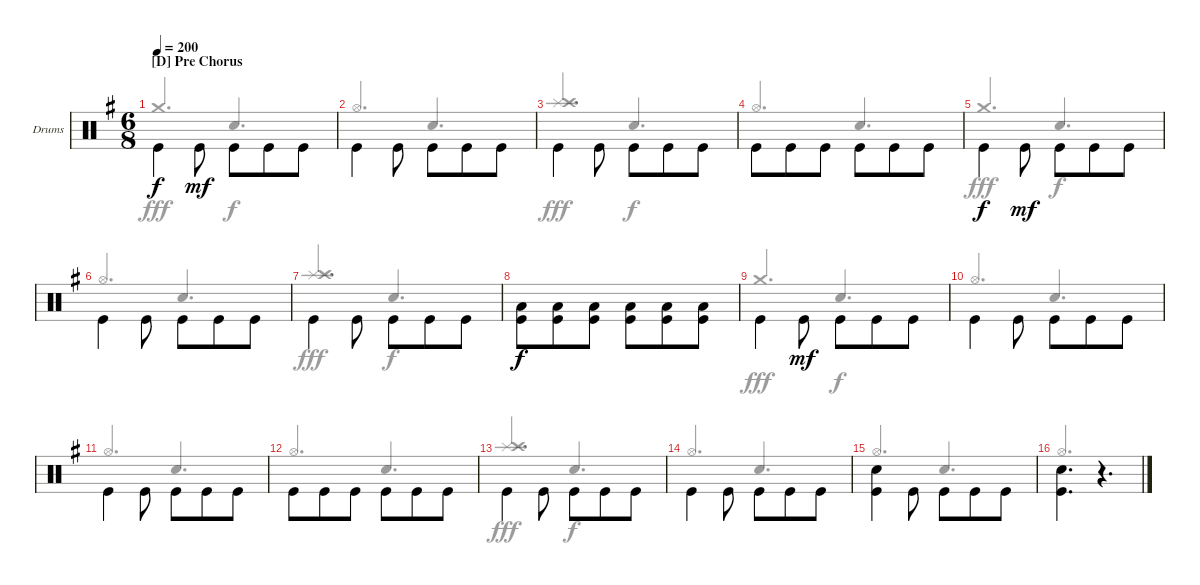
\bracketExtendMode groupsimilarinstruments
\firstSystemTrackNameOrientation horizontal
\otherSystemsTrackNameOrientation horizontal
\track ("Drumkit" "Drums") {instrument percussion}
\staff {score}
\articulation defaults
\voice
\ts (6 8)
\section ("D" "Pre Chorus")
\tempo 200
\clef neutral
\ks eminor "Kick (hit)".4{dy f beam invert} "Kick (hit)".8{dy mf beam invert} "Kick (hit)".8{beam invert} "Kick (hit)".8 "Kick (hit)".8
|
"Kick (hit)".4{beam invert} "Kick (hit)".8{beam invert} "Kick (hit)".8 "Kick (hit)".8{beam invert} "Kick (hit)".8 |
"Kick (hit)".4{beam invert} "Kick (hit)".8{beam invert} "Kick (hit)".8{beam invert} "Kick (hit)".8 "Kick (hit)".8 |
"Kick (hit)".8{beam invert} "Kick (hit)".8{beam invert} "Kick (hit)".8{beam invert} "Kick (hit)".8 "Kick (hit)".8 "Kick (hit)".8{beam invert} |
"Kick (hit)".4{dy f beam invert} "Kick (hit)".8{dy mf beam invert} "Kick (hit)".8{beam invert} "Kick (hit)".8 "Kick (hit)".8 |
"Kick (hit)".4{beam invert} "Kick (hit)".8{beam invert} "Kick (hit)".8 "Kick (hit)".8{beam invert} "Kick (hit)".8 |
"Kick (hit)".4{beam invert} "Kick (hit)".8{beam invert} "Kick (hit)".8{beam invert} "Kick (hit)".8 "Kick (hit)".8 |
("Kick (hit)" "Low Tom (hit)").8{dy f beam invert} ("Kick (hit)" "Low Tom (hit)").8{beam invert} ("Kick (hit)" "Low Tom (hit)").8{beam invert} ("Kick (hit)" "Low Tom (hit)").8 ("Kick (hit)" "Low Tom (hit)").8 ("Kick (hit)" "Low Tom (hit)").8{beam invert} |
"Kick (hit)".4{beam invert} "Kick (hit)".8{dy mf beam invert} "Kick (hit)".8{beam invert} "Kick (hit)".8 "Kick (hit)".8 |
"Kick (hit)".4{beam invert} "Kick (hit)".8{beam invert} "Kick (hit)".8 "Kick (hit)".8{beam invert} "Kick (hit)".8 |
"Kick (hit)".4{beam invert} "Kick (hit)".8{beam invert} "Kick (hit)".8 "Kick (hit)".8{beam invert} "Kick (hit)".8 |
"Kick (hit)".8{beam invert} "Kick (hit)".8{beam invert} "Kick (hit)".8{beam invert} "Kick (hit)".8 "Kick (hit)".8 "Kick (hit)".8{beam invert} |
"Kick (hit)".4{beam invert} "Kick (hit)".8{beam invert} "Kick (hit)".8{beam invert} "Kick (hit)".8 "Kick (hit)".8 |
"Kick (hit)".4{beam invert} "Kick (hit)".8{beam invert} "Kick (hit)".8 "Kick (hit)".8{beam invert} "Kick (hit)".8 |
("Kick (hit)" "Snare (hit) 2").4{beam invert} "Kick (hit)".8{beam invert} "Kick (hit)".8 "Kick (hit)".8{beam invert} "Kick (hit)".8 |
("Kick (hit)" "Snare (hit) 2").4{d beam invert} r.4{d}
\voice
\clef neutral
\ottava regular
\simile none
\ks eminor "Crash medium (hit)".4{d dy fff beam invert} "Snare (hit) 2".4{d dy f beam invert}
|
"Hi-Hat (open)".4{d beam invert} "Snare (hit) 2".4{d beam invert} |
("Splash (hit)" "Crash high (hit)").4{d dy fff beam invert} "Snare (hit) 2".4{d dy f beam invert} |
"Hi-Hat (open)".4{d beam invert} "Snare (hit) 2".4{d beam invert} |
"Crash medium (hit)".4{d dy fff beam invert} "Snare (hit) 2".4{d dy f beam invert} |
"Hi-Hat (open)".4{d beam invert} "Snare (hit) 2".4{d beam invert} |
("Splash (hit)" "Crash high (hit)").4{d dy fff beam invert} "Snare (hit) 2".4{d dy f beam invert} |
|
"Crash medium (hit)".4{d dy fff beam invert} "Snare (hit) 2".4{d dy f beam invert} |
"Hi-Hat (open)".4{d beam invert} "Snare (hit) 2".4{d beam invert} |
"Hi-Hat (open)".4{d beam invert} "Snare (hit) 2".4{d beam invert} |
"Hi-Hat (open)".4{d beam invert} "Snare (hit) 2".4{d beam invert} |
("Splash (hit)" "Crash high (hit)").4{d dy fff beam invert} "Snare (hit) 2".4{d dy f beam invert} |
"Hi-Hat (open)".4{d beam invert} "Snare (hit) 2".4{d beam invert} |
"Hi-Hat (open)".4{d beam invert} "Snare (hit) 2".4{d beam invert} |
"Hi-Hat (open)".4{d beam invert} r.4{d}
